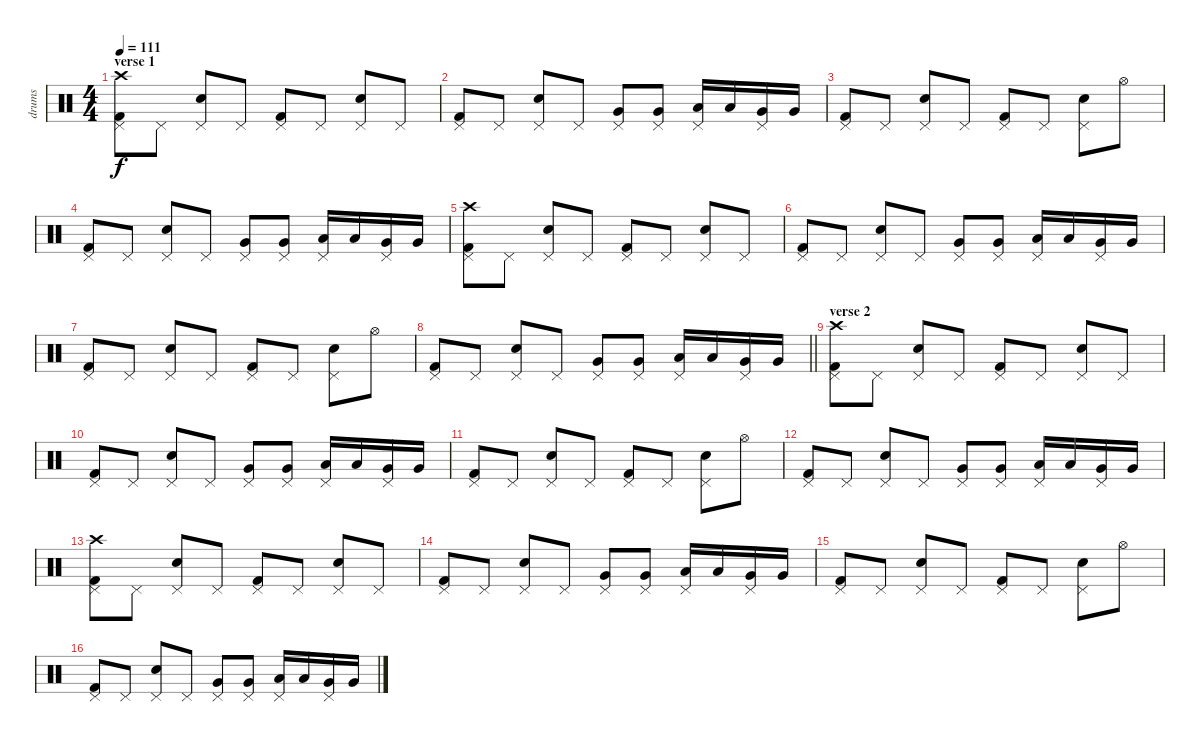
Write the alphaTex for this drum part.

\track ("drums" "drums") {instrument percussion}
\staff {score}
\articulation defaults
\ts (4 4)
\section ("" "verse 1")
\tempo 111
\clef neutral
\ks c
("Kick (hit) 2" "Pedal Hi-Hat (hit)" "Crash high (hit)").8{dy f} "Pedal Hi-Hat (hit)".8 ("Electric Snare (hit)" "Pedal Hi-Hat (hit)").8 "Pedal Hi-Hat (hit)".8 ("Kick (hit) 2" "Pedal Hi-Hat (hit)").8 "Pedal Hi-Hat (hit)".8 ("Electric Snare (hit)" "Pedal Hi-Hat (hit)").8 "Pedal Hi-Hat (hit)".8 |
("Kick (hit) 2" "Pedal Hi-Hat (hit)").8 "Pedal Hi-Hat (hit)".8 ("Electric Snare (hit)" "Pedal Hi-Hat (hit)").8 "Pedal Hi-Hat (hit)".8 ("Very Low Tom (hit)" "Pedal Hi-Hat (hit)").8 ("Very Low Tom (hit)" "Pedal Hi-Hat (hit)").8 ("Low Floor Tom (hit)" "Pedal Hi-Hat (hit)").16 "Low Floor Tom (hit)".16 ("Very Low Tom (hit)" "Pedal Hi-Hat (hit)").16 "Very Low Tom (hit)".16 |
("Kick (hit) 2" "Pedal Hi-Hat (hit)").8 "Pedal Hi-Hat (hit)".8 ("Electric Snare (hit)" "Pedal Hi-Hat (hit)").8 "Pedal Hi-Hat (hit)".8 ("Kick (hit) 2" "Pedal Hi-Hat (hit)").8 "Pedal Hi-Hat (hit)".8 ("Electric Snare (hit)" "Pedal Hi-Hat (hit)").8 "Hi-Hat (open)".8 |
("Kick (hit) 2" "Pedal Hi-Hat (hit)").8 "Pedal Hi-Hat (hit)".8 ("Electric Snare (hit)" "Pedal Hi-Hat (hit)").8 "Pedal Hi-Hat (hit)".8 ("Very Low Tom (hit)" "Pedal Hi-Hat (hit)").8 ("Very Low Tom (hit)" "Pedal Hi-Hat (hit)").8 ("Low Floor Tom (hit)" "Pedal Hi-Hat (hit)").16 "Low Floor Tom (hit)".16 ("Very Low Tom (hit)" "Pedal Hi-Hat (hit)").16 "Very Low Tom (hit)".16 |
("Kick (hit) 2" "Pedal Hi-Hat (hit)" "Crash high (hit)").8 "Pedal Hi-Hat (hit)".8 ("Electric Snare (hit)" "Pedal Hi-Hat (hit)").8 "Pedal Hi-Hat (hit)".8 ("Kick (hit) 2" "Pedal Hi-Hat (hit)").8 "Pedal Hi-Hat (hit)".8 ("Electric Snare (hit)" "Pedal Hi-Hat (hit)").8 "Pedal Hi-Hat (hit)".8 |
("Kick (hit) 2" "Pedal Hi-Hat (hit)").8 "Pedal Hi-Hat (hit)".8 ("Electric Snare (hit)" "Pedal Hi-Hat (hit)").8 "Pedal Hi-Hat (hit)".8 ("Very Low Tom (hit)" "Pedal Hi-Hat (hit)").8 ("Very Low Tom (hit)" "Pedal Hi-Hat (hit)").8 ("Low Floor Tom (hit)" "Pedal Hi-Hat (hit)").16 "Low Floor Tom (hit)".16 ("Very Low Tom (hit)" "Pedal Hi-Hat (hit)").16 "Very Low Tom (hit)".16 |
("Kick (hit) 2" "Pedal Hi-Hat (hit)").8 "Pedal Hi-Hat (hit)".8 ("Electric Snare (hit)" "Pedal Hi-Hat (hit)").8 "Pedal Hi-Hat (hit)".8 ("Kick (hit) 2" "Pedal Hi-Hat (hit)").8 "Pedal Hi-Hat (hit)".8 ("Electric Snare (hit)" "Pedal Hi-Hat (hit)").8 "Hi-Hat (open)".8 |
\barLineRight lightlight
("Kick (hit) 2" "Pedal Hi-Hat (hit)").8 "Pedal Hi-Hat (hit)".8 ("Electric Snare (hit)" "Pedal Hi-Hat (hit)").8 "Pedal Hi-Hat (hit)".8 ("Very Low Tom (hit)" "Pedal Hi-Hat (hit)").8 ("Very Low Tom (hit)" "Pedal Hi-Hat (hit)").8 ("Low Floor Tom (hit)" "Pedal Hi-Hat (hit)").16 "Low Floor Tom (hit)".16 ("Very Low Tom (hit)" "Pedal Hi-Hat (hit)").16 "Very Low Tom (hit)".16 |
\section ("" "verse 2")
("Kick (hit) 2" "Pedal Hi-Hat (hit)" "Crash high (hit)").8 "Pedal Hi-Hat (hit)".8 ("Electric Snare (hit)" "Pedal Hi-Hat (hit)").8 "Pedal Hi-Hat (hit)".8 ("Kick (hit) 2" "Pedal Hi-Hat (hit)").8 "Pedal Hi-Hat (hit)".8 ("Electric Snare (hit)" "Pedal Hi-Hat (hit)").8 "Pedal Hi-Hat (hit)".8 |
("Kick (hit) 2" "Pedal Hi-Hat (hit)").8 "Pedal Hi-Hat (hit)".8 ("Electric Snare (hit)" "Pedal Hi-Hat (hit)").8 "Pedal Hi-Hat (hit)".8 ("Very Low Tom (hit)" "Pedal Hi-Hat (hit)").8 ("Very Low Tom (hit)" "Pedal Hi-Hat (hit)").8 ("Low Floor Tom (hit)" "Pedal Hi-Hat (hit)").16 "Low Floor Tom (hit)".16 ("Very Low Tom (hit)" "Pedal Hi-Hat (hit)").16 "Very Low Tom (hit)".16 |
("Kick (hit) 2" "Pedal Hi-Hat (hit)").8 "Pedal Hi-Hat (hit)".8 ("Electric Snare (hit)" "Pedal Hi-Hat (hit)").8 "Pedal Hi-Hat (hit)".8 ("Kick (hit) 2" "Pedal Hi-Hat (hit)").8 "Pedal Hi-Hat (hit)".8 ("Electric Snare (hit)" "Pedal Hi-Hat (hit)").8 "Hi-Hat (open)".8 |
("Kick (hit) 2" "Pedal Hi-Hat (hit)").8 "Pedal Hi-Hat (hit)".8 ("Electric Snare (hit)" "Pedal Hi-Hat (hit)").8 "Pedal Hi-Hat (hit)".8 ("Very Low Tom (hit)" "Pedal Hi-Hat (hit)").8 ("Very Low Tom (hit)" "Pedal Hi-Hat (hit)").8 ("Low Floor Tom (hit)" "Pedal Hi-Hat (hit)").16 "Low Floor Tom (hit)".16 ("Very Low Tom (hit)" "Pedal Hi-Hat (hit)").16 "Very Low Tom (hit)".16 |
("Kick (hit) 2" "Pedal Hi-Hat (hit)" "Crash high (hit)").8 "Pedal Hi-Hat (hit)".8 ("Electric Snare (hit)" "Pedal Hi-Hat (hit)").8 "Pedal Hi-Hat (hit)".8 ("Kick (hit) 2" "Pedal Hi-Hat (hit)").8 "Pedal Hi-Hat (hit)".8 ("Electric Snare (hit)" "Pedal Hi-Hat (hit)").8 "Pedal Hi-Hat (hit)".8 |
("Kick (hit) 2" "Pedal Hi-Hat (hit)").8 "Pedal Hi-Hat (hit)".8 ("Electric Snare (hit)" "Pedal Hi-Hat (hit)").8 "Pedal Hi-Hat (hit)".8 ("Very Low Tom (hit)" "Pedal Hi-Hat (hit)").8 ("Very Low Tom (hit)" "Pedal Hi-Hat (hit)").8 ("Low Floor Tom (hit)" "Pedal Hi-Hat (hit)").16 "Low Floor Tom (hit)".16 ("Very Low Tom (hit)" "Pedal Hi-Hat (hit)").16 "Very Low Tom (hit)".16 |
("Kick (hit) 2" "Pedal Hi-Hat (hit)").8 "Pedal Hi-Hat (hit)".8 ("Electric Snare (hit)" "Pedal Hi-Hat (hit)").8 "Pedal Hi-Hat (hit)".8 ("Kick (hit) 2" "Pedal Hi-Hat (hit)").8 "Pedal Hi-Hat (hit)".8 ("Electric Snare (hit)" "Pedal Hi-Hat (hit)").8 "Hi-Hat (open)".8 |
("Kick (hit) 2" "Pedal Hi-Hat (hit)").8 "Pedal Hi-Hat (hit)".8 ("Electric Snare (hit)" "Pedal Hi-Hat (hit)").8 "Pedal Hi-Hat (hit)".8 ("Very Low Tom (hit)" "Pedal Hi-Hat (hit)").8 ("Very Low Tom (hit)" "Pedal Hi-Hat (hit)").8 ("Low Floor Tom (hit)" "Pedal Hi-Hat (hit)").16 "Low Floor Tom (hit)".16 ("Very Low Tom (hit)" "Pedal Hi-Hat (hit)").16 "Very Low Tom (hit)".16
